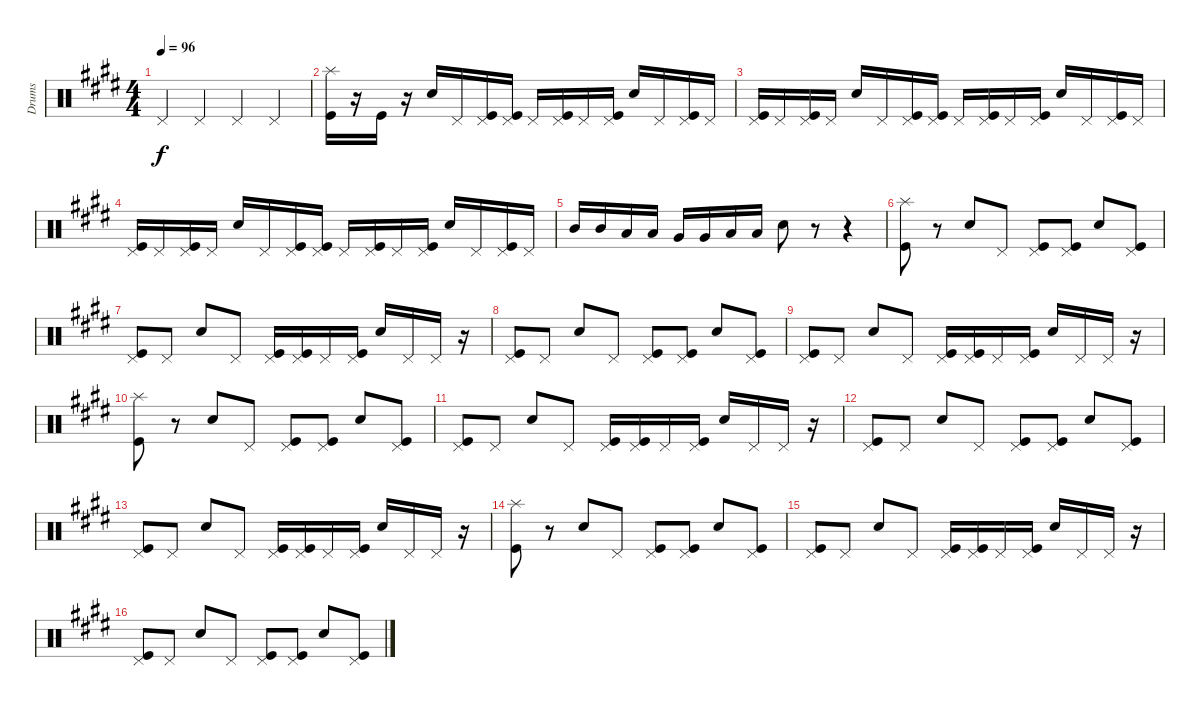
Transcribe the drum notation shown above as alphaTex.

\track ("Drums" "Drums") {instrument percussion}
\staff {score}
\articulation defaults
\ts (4 4)
\tempo 96
\clef neutral
\ks e "Pedal Hi-Hat (hit)".4{dy f} "Pedal Hi-Hat (hit)".4 "Pedal Hi-Hat (hit)".4 "Pedal Hi-Hat (hit)".4
|
("Kick (hit)" "Splash (hit)").16 r.16 "Kick (hit)".16 r.16 "Electric Snare (hit)".16 "Pedal Hi-Hat (hit)".16 ("Kick (hit)" "Pedal Hi-Hat (hit)").16 ("Kick (hit)" "Pedal Hi-Hat (hit)").16 "Pedal Hi-Hat (hit)".16 ("Kick (hit)" "Pedal Hi-Hat (hit)").16 "Pedal Hi-Hat (hit)".16 ("Kick (hit)" "Pedal Hi-Hat (hit)").16 "Electric Snare (hit)".16 "Pedal Hi-Hat (hit)".16 ("Kick (hit)" "Pedal Hi-Hat (hit)").16 "Pedal Hi-Hat (hit)".16 |
("Kick (hit)" "Pedal Hi-Hat (hit)").16 "Pedal Hi-Hat (hit)".16 ("Kick (hit)" "Pedal Hi-Hat (hit)").16 "Pedal Hi-Hat (hit)".16 "Electric Snare (hit)".16 "Pedal Hi-Hat (hit)".16 ("Kick (hit)" "Pedal Hi-Hat (hit)").16 ("Kick (hit)" "Pedal Hi-Hat (hit)").16 "Pedal Hi-Hat (hit)".16 ("Kick (hit)" "Pedal Hi-Hat (hit)").16 "Pedal Hi-Hat (hit)".16 ("Kick (hit)" "Pedal Hi-Hat (hit)").16 "Electric Snare (hit)".16 "Pedal Hi-Hat (hit)".16 ("Kick (hit)" "Pedal Hi-Hat (hit)").16 "Pedal Hi-Hat (hit)".16 |
("Kick (hit)" "Pedal Hi-Hat (hit)").16 "Pedal Hi-Hat (hit)".16 ("Kick (hit)" "Pedal Hi-Hat (hit)").16 "Pedal Hi-Hat (hit)".16 "Electric Snare (hit)".16 "Pedal Hi-Hat (hit)".16 ("Kick (hit)" "Pedal Hi-Hat (hit)").16 ("Kick (hit)" "Pedal Hi-Hat (hit)").16 "Pedal Hi-Hat (hit)".16 ("Kick (hit)" "Pedal Hi-Hat (hit)").16 "Pedal Hi-Hat (hit)".16 ("Kick (hit)" "Pedal Hi-Hat (hit)").16 "Electric Snare (hit)".16 "Pedal Hi-Hat (hit)".16 ("Kick (hit)" "Pedal Hi-Hat (hit)").16 "Pedal Hi-Hat (hit)".16 |
"Mid Tom (hit)".16 "Mid Tom (hit)".16 "Low Tom (hit)".16 "Low Tom (hit)".16 "Very Low Tom (hit)".16 "Very Low Tom (hit)".16 "Low Floor Tom (hit)".16 "Low Floor Tom (hit)".16 "Electric Snare (hit)".8 r.8 r.4 |
("Kick (hit)" "Splash (hit)").8 r.8 "Electric Snare (hit)".8 "Pedal Hi-Hat (hit)".8 ("Kick (hit)" "Pedal Hi-Hat (hit)").8 ("Kick (hit)" "Pedal Hi-Hat (hit)").8 "Electric Snare (hit)".8 ("Kick (hit)" "Pedal Hi-Hat (hit)").8 |
("Kick (hit)" "Pedal Hi-Hat (hit)").8 "Pedal Hi-Hat (hit)".8 "Electric Snare (hit)".8 "Pedal Hi-Hat (hit)".8 ("Kick (hit)" "Pedal Hi-Hat (hit)").16 ("Kick (hit)" "Pedal Hi-Hat (hit)").16 "Pedal Hi-Hat (hit)".16 ("Kick (hit)" "Pedal Hi-Hat (hit)").16 "Electric Snare (hit)".16 "Pedal Hi-Hat (hit)".16 "Pedal Hi-Hat (hit)".16 r.16 |
("Kick (hit)" "Pedal Hi-Hat (hit)").8 "Pedal Hi-Hat (hit)".8 "Electric Snare (hit)".8 "Pedal Hi-Hat (hit)".8 ("Kick (hit)" "Pedal Hi-Hat (hit)").8 ("Kick (hit)" "Pedal Hi-Hat (hit)").8 "Electric Snare (hit)".8 ("Kick (hit)" "Pedal Hi-Hat (hit)").8 |
("Kick (hit)" "Pedal Hi-Hat (hit)").8 "Pedal Hi-Hat (hit)".8 "Electric Snare (hit)".8 "Pedal Hi-Hat (hit)".8 ("Kick (hit)" "Pedal Hi-Hat (hit)").16 ("Kick (hit)" "Pedal Hi-Hat (hit)").16 "Pedal Hi-Hat (hit)".16 ("Kick (hit)" "Pedal Hi-Hat (hit)").16 "Electric Snare (hit)".16 "Pedal Hi-Hat (hit)".16 "Pedal Hi-Hat (hit)".16 r.16 |
("Kick (hit)" "Splash (hit)").8 r.8 "Electric Snare (hit)".8 "Pedal Hi-Hat (hit)".8 ("Kick (hit)" "Pedal Hi-Hat (hit)").8 ("Kick (hit)" "Pedal Hi-Hat (hit)").8 "Electric Snare (hit)".8 ("Kick (hit)" "Pedal Hi-Hat (hit)").8 |
("Kick (hit)" "Pedal Hi-Hat (hit)").8 "Pedal Hi-Hat (hit)".8 "Electric Snare (hit)".8 "Pedal Hi-Hat (hit)".8 ("Kick (hit)" "Pedal Hi-Hat (hit)").16 ("Kick (hit)" "Pedal Hi-Hat (hit)").16 "Pedal Hi-Hat (hit)".16 ("Kick (hit)" "Pedal Hi-Hat (hit)").16 "Electric Snare (hit)".16 "Pedal Hi-Hat (hit)".16 "Pedal Hi-Hat (hit)".16 r.16 |
("Kick (hit)" "Pedal Hi-Hat (hit)").8 "Pedal Hi-Hat (hit)".8 "Electric Snare (hit)".8 "Pedal Hi-Hat (hit)".8 ("Kick (hit)" "Pedal Hi-Hat (hit)").8 ("Kick (hit)" "Pedal Hi-Hat (hit)").8 "Electric Snare (hit)".8 ("Kick (hit)" "Pedal Hi-Hat (hit)").8 |
("Kick (hit)" "Pedal Hi-Hat (hit)").8 "Pedal Hi-Hat (hit)".8 "Electric Snare (hit)".8 "Pedal Hi-Hat (hit)".8 ("Kick (hit)" "Pedal Hi-Hat (hit)").16 ("Kick (hit)" "Pedal Hi-Hat (hit)").16 "Pedal Hi-Hat (hit)".16 ("Kick (hit)" "Pedal Hi-Hat (hit)").16 "Electric Snare (hit)".16 "Pedal Hi-Hat (hit)".16 "Pedal Hi-Hat (hit)".16 r.16 |
("Kick (hit)" "Splash (hit)").8 r.8 "Electric Snare (hit)".8 "Pedal Hi-Hat (hit)".8 ("Kick (hit)" "Pedal Hi-Hat (hit)").8 ("Kick (hit)" "Pedal Hi-Hat (hit)").8 "Electric Snare (hit)".8 ("Kick (hit)" "Pedal Hi-Hat (hit)").8 |
("Kick (hit)" "Pedal Hi-Hat (hit)").8 "Pedal Hi-Hat (hit)".8 "Electric Snare (hit)".8 "Pedal Hi-Hat (hit)".8 ("Kick (hit)" "Pedal Hi-Hat (hit)").16 ("Kick (hit)" "Pedal Hi-Hat (hit)").16 "Pedal Hi-Hat (hit)".16 ("Kick (hit)" "Pedal Hi-Hat (hit)").16 "Electric Snare (hit)".16 "Pedal Hi-Hat (hit)".16 "Pedal Hi-Hat (hit)".16 r.16 |
("Kick (hit)" "Pedal Hi-Hat (hit)").8 "Pedal Hi-Hat (hit)".8 "Electric Snare (hit)".8 "Pedal Hi-Hat (hit)".8 ("Kick (hit)" "Pedal Hi-Hat (hit)").8 ("Kick (hit)" "Pedal Hi-Hat (hit)").8 "Electric Snare (hit)".8 ("Kick (hit)" "Pedal Hi-Hat (hit)").8
